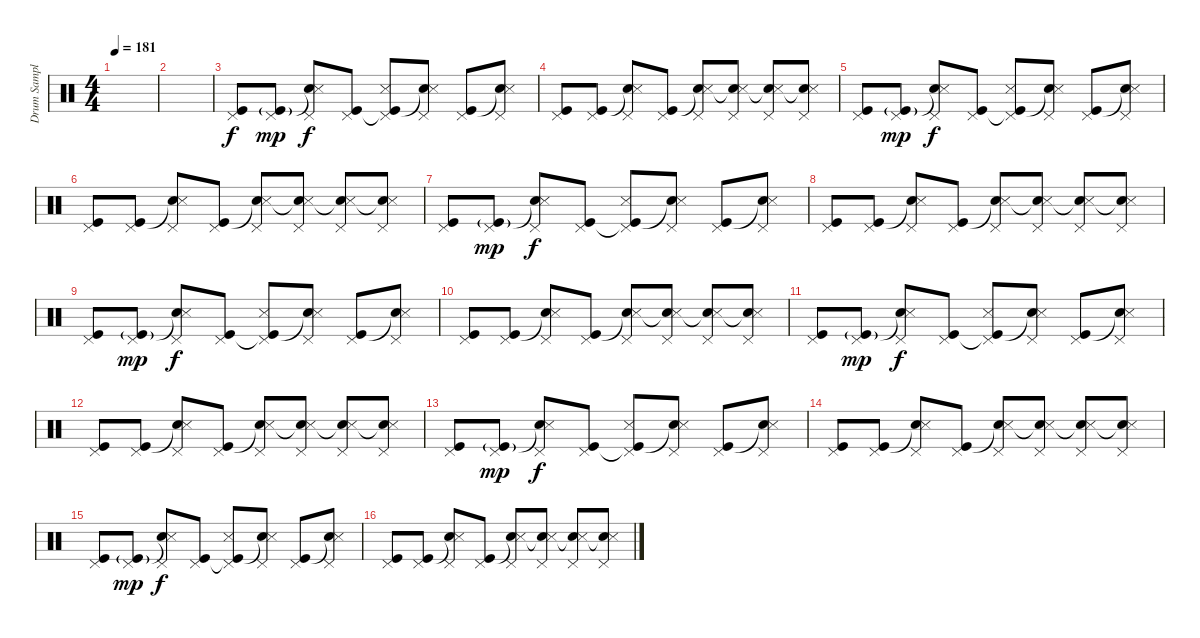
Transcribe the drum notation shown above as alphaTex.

\track ("Drum Sample" "Drum Sampl") {instrument percussion}
\staff {score}
\articulation defaults
\ts (4 4)
\tempo 181
\clef neutral
\ks c
|
|
("Kick (hit)" "Pedal Hi-Hat (hit)").8 ("Kick (hit)"{g} "Pedal Hi-Hat (hit)").8{dy mp} ("Snare (hit)"{t} "Snare (side stick) 3" "Pedal Hi-Hat (hit)").8{dy f} ("Kick (hit)" "Pedal Hi-Hat (hit)").8 ("Kick (hit)"{t} "Metronome (hit)" "Pedal Hi-Hat (hit)").8 ("Snare (hit)"{t} "Snare (side stick) 3" "Pedal Hi-Hat (hit)").8 ("Kick (hit)" "Pedal Hi-Hat (hit)").8 ("Snare (hit)"{t} "Snare (side stick) 3" "Pedal Hi-Hat (hit)").8 |
("Kick (hit)" "Pedal Hi-Hat (hit)").8 ("Kick (hit)" "Pedal Hi-Hat (hit)").8 ("Snare (hit)"{t} "Snare (side stick) 3" "Pedal Hi-Hat (hit)").8 ("Kick (hit)" "Pedal Hi-Hat (hit)").8 ("Snare (hit)"{t} "Metronome (hit)" "Pedal Hi-Hat (hit)").8 ("Snare (hit)"{t} "Metronome (hit)" "Pedal Hi-Hat (hit)").8 ("Snare (hit)"{t} "Snare (side stick) 3" "Pedal Hi-Hat (hit)").8 ("Snare (hit)"{t} "Snare (side stick) 3" "Pedal Hi-Hat (hit)").8 |
("Kick (hit)" "Pedal Hi-Hat (hit)").8 ("Kick (hit)"{g} "Pedal Hi-Hat (hit)").8{dy mp} ("Snare (hit)"{t} "Snare (side stick) 3" "Pedal Hi-Hat (hit)").8{dy f} ("Kick (hit)" "Pedal Hi-Hat (hit)").8 ("Kick (hit)"{t} "Metronome (hit)" "Pedal Hi-Hat (hit)").8 ("Snare (hit)"{t} "Snare (side stick) 3" "Pedal Hi-Hat (hit)").8 ("Kick (hit)" "Pedal Hi-Hat (hit)").8 ("Snare (hit)"{t} "Snare (side stick) 3" "Pedal Hi-Hat (hit)").8 |
("Kick (hit)" "Pedal Hi-Hat (hit)").8 ("Kick (hit)" "Pedal Hi-Hat (hit)").8 ("Snare (hit)"{t} "Snare (side stick) 3" "Pedal Hi-Hat (hit)").8 ("Kick (hit)" "Pedal Hi-Hat (hit)").8 ("Snare (hit)"{t} "Metronome (hit)" "Pedal Hi-Hat (hit)").8 ("Snare (hit)"{t} "Metronome (hit)" "Pedal Hi-Hat (hit)").8 ("Snare (hit)"{t} "Snare (side stick) 3" "Pedal Hi-Hat (hit)").8 ("Snare (hit)"{t} "Snare (side stick) 3" "Pedal Hi-Hat (hit)").8 |
("Kick (hit)" "Pedal Hi-Hat (hit)").8 ("Kick (hit)"{g} "Pedal Hi-Hat (hit)").8{dy mp} ("Snare (hit)"{t} "Snare (side stick) 3" "Pedal Hi-Hat (hit)").8{dy f} ("Kick (hit)" "Pedal Hi-Hat (hit)").8 ("Kick (hit)"{t} "Metronome (hit)" "Pedal Hi-Hat (hit)").8 ("Snare (hit)"{t} "Snare (side stick) 3" "Pedal Hi-Hat (hit)").8 ("Kick (hit)" "Pedal Hi-Hat (hit)").8 ("Snare (hit)"{t} "Snare (side stick) 3" "Pedal Hi-Hat (hit)").8 |
("Kick (hit)" "Pedal Hi-Hat (hit)").8 ("Kick (hit)" "Pedal Hi-Hat (hit)").8 ("Snare (hit)"{t} "Snare (side stick) 3" "Pedal Hi-Hat (hit)").8 ("Kick (hit)" "Pedal Hi-Hat (hit)").8 ("Snare (hit)"{t} "Metronome (hit)" "Pedal Hi-Hat (hit)").8 ("Snare (hit)"{t} "Metronome (hit)" "Pedal Hi-Hat (hit)").8 ("Snare (hit)"{t} "Snare (side stick) 3" "Pedal Hi-Hat (hit)").8 ("Snare (hit)"{t} "Snare (side stick) 3" "Pedal Hi-Hat (hit)").8 |
("Kick (hit)" "Pedal Hi-Hat (hit)").8 ("Kick (hit)"{g} "Pedal Hi-Hat (hit)").8{dy mp} ("Snare (hit)"{t} "Snare (side stick) 3" "Pedal Hi-Hat (hit)").8{dy f} ("Kick (hit)" "Pedal Hi-Hat (hit)").8 ("Kick (hit)"{t} "Metronome (hit)" "Pedal Hi-Hat (hit)").8 ("Snare (hit)"{t} "Snare (side stick) 3" "Pedal Hi-Hat (hit)").8 ("Kick (hit)" "Pedal Hi-Hat (hit)").8 ("Snare (hit)"{t} "Snare (side stick) 3" "Pedal Hi-Hat (hit)").8 |
("Kick (hit)" "Pedal Hi-Hat (hit)").8 ("Kick (hit)" "Pedal Hi-Hat (hit)").8 ("Snare (hit)"{t} "Snare (side stick) 3" "Pedal Hi-Hat (hit)").8 ("Kick (hit)" "Pedal Hi-Hat (hit)").8 ("Snare (hit)"{t} "Metronome (hit)" "Pedal Hi-Hat (hit)").8 ("Snare (hit)"{t} "Metronome (hit)" "Pedal Hi-Hat (hit)").8 ("Snare (hit)"{t} "Snare (side stick) 3" "Pedal Hi-Hat (hit)").8 ("Snare (hit)"{t} "Snare (side stick) 3" "Pedal Hi-Hat (hit)").8 |
("Kick (hit)" "Pedal Hi-Hat (hit)").8 ("Kick (hit)"{g} "Pedal Hi-Hat (hit)").8{dy mp} ("Snare (hit)"{t} "Snare (side stick) 3" "Pedal Hi-Hat (hit)").8{dy f} ("Kick (hit)" "Pedal Hi-Hat (hit)").8 ("Kick (hit)"{t} "Metronome (hit)" "Pedal Hi-Hat (hit)").8 ("Snare (hit)"{t} "Snare (side stick) 3" "Pedal Hi-Hat (hit)").8 ("Kick (hit)" "Pedal Hi-Hat (hit)").8 ("Snare (hit)"{t} "Snare (side stick) 3" "Pedal Hi-Hat (hit)").8 |
("Kick (hit)" "Pedal Hi-Hat (hit)").8 ("Kick (hit)" "Pedal Hi-Hat (hit)").8 ("Snare (hit)"{t} "Snare (side stick) 3" "Pedal Hi-Hat (hit)").8 ("Kick (hit)" "Pedal Hi-Hat (hit)").8 ("Snare (hit)"{t} "Metronome (hit)" "Pedal Hi-Hat (hit)").8 ("Snare (hit)"{t} "Metronome (hit)" "Pedal Hi-Hat (hit)").8 ("Snare (hit)"{t} "Snare (side stick) 3" "Pedal Hi-Hat (hit)").8 ("Snare (hit)"{t} "Snare (side stick) 3" "Pedal Hi-Hat (hit)").8 |
("Kick (hit)" "Pedal Hi-Hat (hit)").8 ("Kick (hit)"{g} "Pedal Hi-Hat (hit)").8{dy mp} ("Snare (hit)"{t} "Snare (side stick) 3" "Pedal Hi-Hat (hit)").8{dy f} ("Kick (hit)" "Pedal Hi-Hat (hit)").8 ("Kick (hit)"{t} "Metronome (hit)" "Pedal Hi-Hat (hit)").8 ("Snare (hit)"{t} "Snare (side stick) 3" "Pedal Hi-Hat (hit)").8 ("Kick (hit)" "Pedal Hi-Hat (hit)").8 ("Snare (hit)"{t} "Snare (side stick) 3" "Pedal Hi-Hat (hit)").8 |
("Kick (hit)" "Pedal Hi-Hat (hit)").8 ("Kick (hit)" "Pedal Hi-Hat (hit)").8 ("Snare (hit)"{t} "Snare (side stick) 3" "Pedal Hi-Hat (hit)").8 ("Kick (hit)" "Pedal Hi-Hat (hit)").8 ("Snare (hit)"{t} "Metronome (hit)" "Pedal Hi-Hat (hit)").8 ("Snare (hit)"{t} "Metronome (hit)" "Pedal Hi-Hat (hit)").8 ("Snare (hit)"{t} "Snare (side stick) 3" "Pedal Hi-Hat (hit)").8 ("Snare (hit)"{t} "Snare (side stick) 3" "Pedal Hi-Hat (hit)").8 |
("Kick (hit)" "Pedal Hi-Hat (hit)").8 ("Kick (hit)"{g} "Pedal Hi-Hat (hit)").8{dy mp} ("Snare (hit)"{t} "Snare (side stick) 3" "Pedal Hi-Hat (hit)").8{dy f} ("Kick (hit)" "Pedal Hi-Hat (hit)").8 ("Kick (hit)"{t} "Metronome (hit)" "Pedal Hi-Hat (hit)").8 ("Snare (hit)"{t} "Snare (side stick) 3" "Pedal Hi-Hat (hit)").8 ("Kick (hit)" "Pedal Hi-Hat (hit)").8 ("Snare (hit)"{t} "Snare (side stick) 3" "Pedal Hi-Hat (hit)").8 |
("Kick (hit)" "Pedal Hi-Hat (hit)").8 ("Kick (hit)" "Pedal Hi-Hat (hit)").8 ("Snare (hit)"{t} "Snare (side stick) 3" "Pedal Hi-Hat (hit)").8 ("Kick (hit)" "Pedal Hi-Hat (hit)").8 ("Snare (hit)"{t} "Metronome (hit)" "Pedal Hi-Hat (hit)").8 ("Snare (hit)"{t} "Metronome (hit)" "Pedal Hi-Hat (hit)").8 ("Snare (hit)"{t} "Snare (side stick) 3" "Pedal Hi-Hat (hit)").8 ("Snare (hit)"{t} "Snare (side stick) 3" "Pedal Hi-Hat (hit)").8
